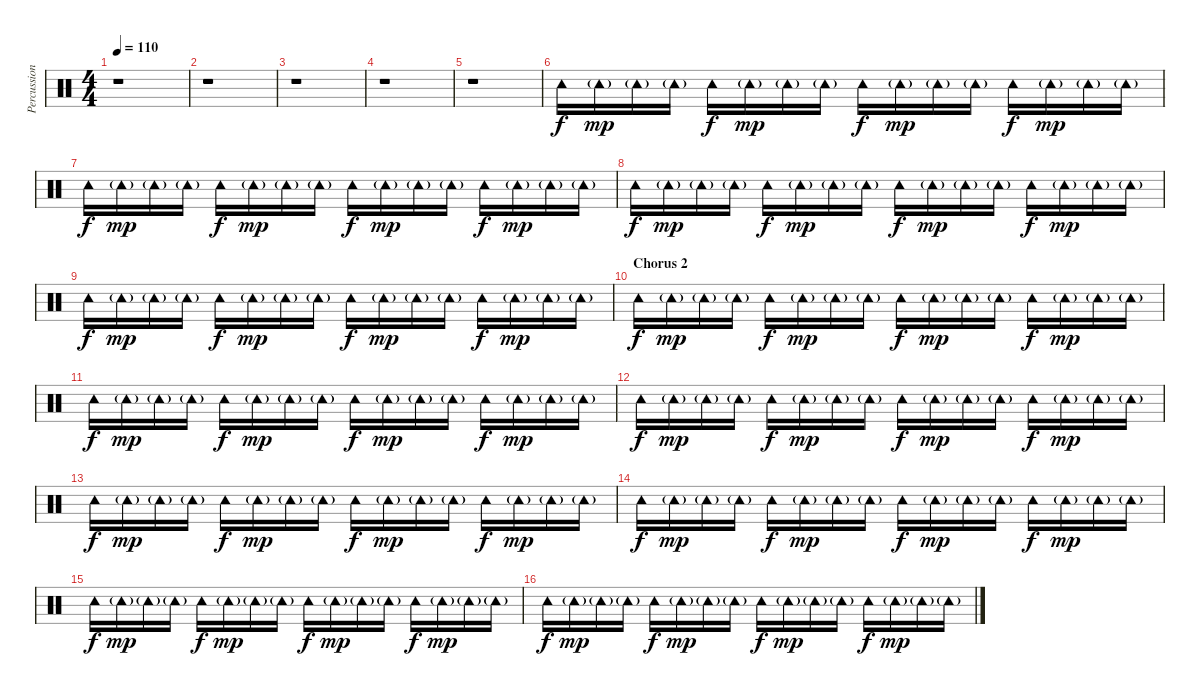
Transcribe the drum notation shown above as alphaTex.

\track ("Percussion" "Percussion") {instrument percussion}
\staff {score}
\articulation defaults
\ts (4 4)
\tempo 110
\clef neutral
\ks c
r.1{dy mp} |
r.1 |
r.1 |
r.1 |
r.1 |
"Tambourine (hit)".16{dy f} "Tambourine (hit)"{g}.16{dy mp} "Tambourine (hit)"{g}.16 "Tambourine (hit)"{g}.16 "Tambourine (hit)".16{dy f} "Tambourine (hit)"{g}.16{dy mp} "Tambourine (hit)"{g}.16 "Tambourine (hit)"{g}.16 "Tambourine (hit)".16{dy f} "Tambourine (hit)"{g}.16{dy mp} "Tambourine (hit)"{g}.16 "Tambourine (hit)"{g}.16 "Tambourine (hit)".16{dy f} "Tambourine (hit)"{g}.16{dy mp} "Tambourine (hit)"{g}.16 "Tambourine (hit)"{g}.16 |
"Tambourine (hit)".16{dy f} "Tambourine (hit)"{g}.16{dy mp} "Tambourine (hit)"{g}.16 "Tambourine (hit)"{g}.16 "Tambourine (hit)".16{dy f} "Tambourine (hit)"{g}.16{dy mp} "Tambourine (hit)"{g}.16 "Tambourine (hit)"{g}.16 "Tambourine (hit)".16{dy f} "Tambourine (hit)"{g}.16{dy mp} "Tambourine (hit)"{g}.16 "Tambourine (hit)"{g}.16 "Tambourine (hit)".16{dy f} "Tambourine (hit)"{g}.16{dy mp} "Tambourine (hit)"{g}.16 "Tambourine (hit)"{g}.16 |
"Tambourine (hit)".16{dy f} "Tambourine (hit)"{g}.16{dy mp} "Tambourine (hit)"{g}.16 "Tambourine (hit)"{g}.16 "Tambourine (hit)".16{dy f} "Tambourine (hit)"{g}.16{dy mp} "Tambourine (hit)"{g}.16 "Tambourine (hit)"{g}.16 "Tambourine (hit)".16{dy f} "Tambourine (hit)"{g}.16{dy mp} "Tambourine (hit)"{g}.16 "Tambourine (hit)"{g}.16 "Tambourine (hit)".16{dy f} "Tambourine (hit)"{g}.16{dy mp} "Tambourine (hit)"{g}.16 "Tambourine (hit)"{g}.16 |
"Tambourine (hit)".16{dy f} "Tambourine (hit)"{g}.16{dy mp} "Tambourine (hit)"{g}.16 "Tambourine (hit)"{g}.16 "Tambourine (hit)".16{dy f} "Tambourine (hit)"{g}.16{dy mp} "Tambourine (hit)"{g}.16 "Tambourine (hit)"{g}.16 "Tambourine (hit)".16{dy f} "Tambourine (hit)"{g}.16{dy mp} "Tambourine (hit)"{g}.16 "Tambourine (hit)"{g}.16 "Tambourine (hit)".16{dy f} "Tambourine (hit)"{g}.16{dy mp} "Tambourine (hit)"{g}.16 "Tambourine (hit)"{g}.16 |
\section ("" "Chorus 2")
"Tambourine (hit)".16{dy f} "Tambourine (hit)"{g}.16{dy mp} "Tambourine (hit)"{g}.16 "Tambourine (hit)"{g}.16 "Tambourine (hit)".16{dy f} "Tambourine (hit)"{g}.16{dy mp} "Tambourine (hit)"{g}.16 "Tambourine (hit)"{g}.16 "Tambourine (hit)".16{dy f} "Tambourine (hit)"{g}.16{dy mp} "Tambourine (hit)"{g}.16 "Tambourine (hit)"{g}.16 "Tambourine (hit)".16{dy f} "Tambourine (hit)"{g}.16{dy mp} "Tambourine (hit)"{g}.16 "Tambourine (hit)"{g}.16 |
"Tambourine (hit)".16{dy f} "Tambourine (hit)"{g}.16{dy mp} "Tambourine (hit)"{g}.16 "Tambourine (hit)"{g}.16 "Tambourine (hit)".16{dy f} "Tambourine (hit)"{g}.16{dy mp} "Tambourine (hit)"{g}.16 "Tambourine (hit)"{g}.16 "Tambourine (hit)".16{dy f} "Tambourine (hit)"{g}.16{dy mp} "Tambourine (hit)"{g}.16 "Tambourine (hit)"{g}.16 "Tambourine (hit)".16{dy f} "Tambourine (hit)"{g}.16{dy mp} "Tambourine (hit)"{g}.16 "Tambourine (hit)"{g}.16 |
"Tambourine (hit)".16{dy f} "Tambourine (hit)"{g}.16{dy mp} "Tambourine (hit)"{g}.16 "Tambourine (hit)"{g}.16 "Tambourine (hit)".16{dy f} "Tambourine (hit)"{g}.16{dy mp} "Tambourine (hit)"{g}.16 "Tambourine (hit)"{g}.16 "Tambourine (hit)".16{dy f} "Tambourine (hit)"{g}.16{dy mp} "Tambourine (hit)"{g}.16 "Tambourine (hit)"{g}.16 "Tambourine (hit)".16{dy f} "Tambourine (hit)"{g}.16{dy mp} "Tambourine (hit)"{g}.16 "Tambourine (hit)"{g}.16 |
"Tambourine (hit)".16{dy f} "Tambourine (hit)"{g}.16{dy mp} "Tambourine (hit)"{g}.16 "Tambourine (hit)"{g}.16 "Tambourine (hit)".16{dy f} "Tambourine (hit)"{g}.16{dy mp} "Tambourine (hit)"{g}.16 "Tambourine (hit)"{g}.16 "Tambourine (hit)".16{dy f} "Tambourine (hit)"{g}.16{dy mp} "Tambourine (hit)"{g}.16 "Tambourine (hit)"{g}.16 "Tambourine (hit)".16{dy f} "Tambourine (hit)"{g}.16{dy mp} "Tambourine (hit)"{g}.16 "Tambourine (hit)"{g}.16 |
"Tambourine (hit)".16{dy f} "Tambourine (hit)"{g}.16{dy mp} "Tambourine (hit)"{g}.16 "Tambourine (hit)"{g}.16 "Tambourine (hit)".16{dy f} "Tambourine (hit)"{g}.16{dy mp} "Tambourine (hit)"{g}.16 "Tambourine (hit)"{g}.16 "Tambourine (hit)".16{dy f} "Tambourine (hit)"{g}.16{dy mp} "Tambourine (hit)"{g}.16 "Tambourine (hit)"{g}.16 "Tambourine (hit)".16{dy f} "Tambourine (hit)"{g}.16{dy mp} "Tambourine (hit)"{g}.16 "Tambourine (hit)"{g}.16 |
"Tambourine (hit)".16{dy f} "Tambourine (hit)"{g}.16{dy mp} "Tambourine (hit)"{g}.16 "Tambourine (hit)"{g}.16 "Tambourine (hit)".16{dy f} "Tambourine (hit)"{g}.16{dy mp} "Tambourine (hit)"{g}.16 "Tambourine (hit)"{g}.16 "Tambourine (hit)".16{dy f} "Tambourine (hit)"{g}.16{dy mp} "Tambourine (hit)"{g}.16 "Tambourine (hit)"{g}.16 "Tambourine (hit)".16{dy f} "Tambourine (hit)"{g}.16{dy mp} "Tambourine (hit)"{g}.16 "Tambourine (hit)"{g}.16 |
"Tambourine (hit)".16{dy f} "Tambourine (hit)"{g}.16{dy mp} "Tambourine (hit)"{g}.16 "Tambourine (hit)"{g}.16 "Tambourine (hit)".16{dy f} "Tambourine (hit)"{g}.16{dy mp} "Tambourine (hit)"{g}.16 "Tambourine (hit)"{g}.16 "Tambourine (hit)".16{dy f} "Tambourine (hit)"{g}.16{dy mp} "Tambourine (hit)"{g}.16 "Tambourine (hit)"{g}.16 "Tambourine (hit)".16{dy f} "Tambourine (hit)"{g}.16{dy mp} "Tambourine (hit)"{g}.16 "Tambourine (hit)"{g}.16
